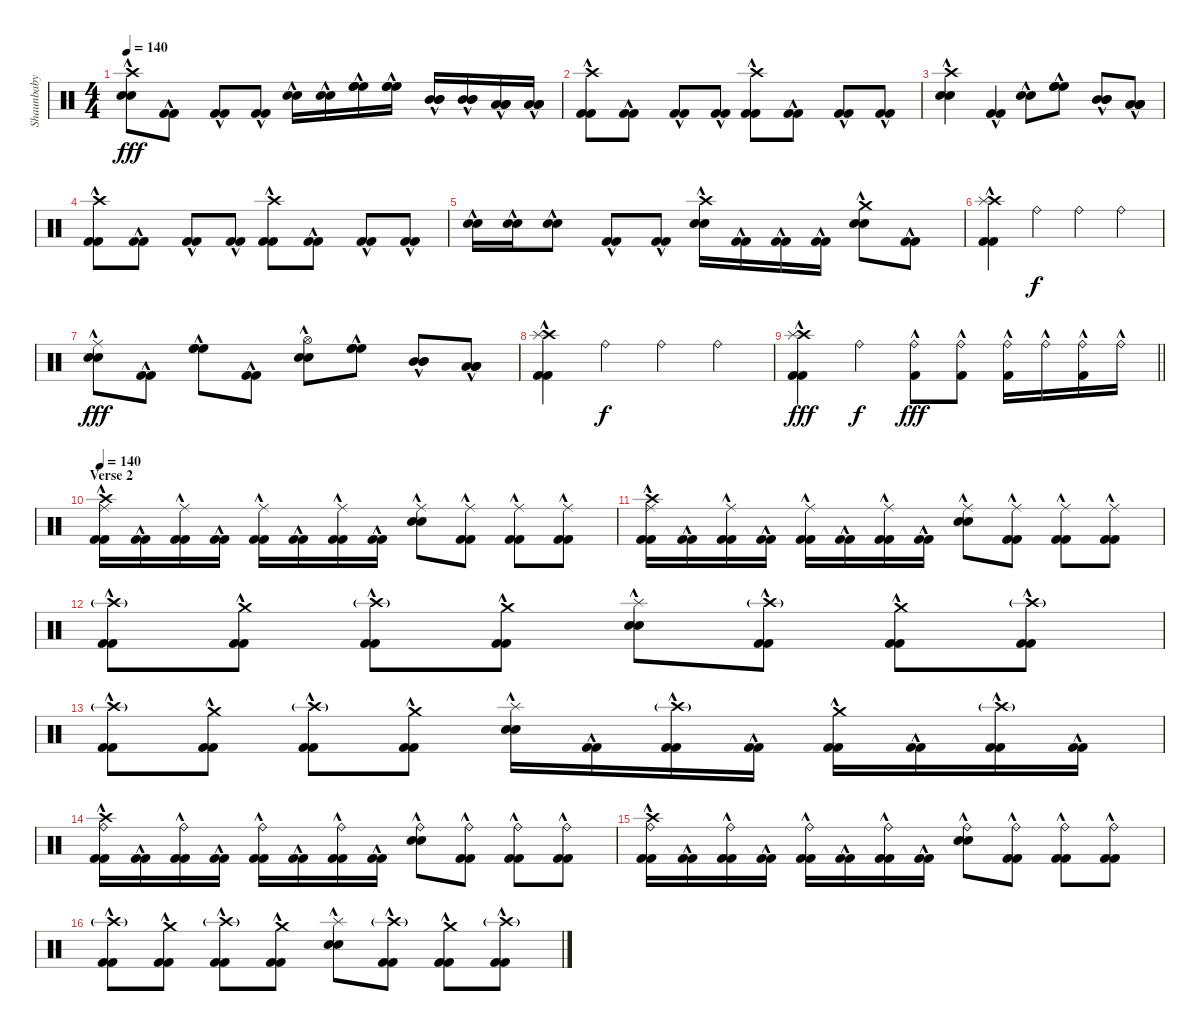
\track ("Shaunbaby" "Shaunbaby") {instrument percussion}
\staff {score}
\articulation defaults
\ts (4 4)
\tempo 140
\clef neutral
\ks c
("Crash high (hit)" "Electric Snare (hit)"{hac} "Electric Snare (hit)"{hac}).8{dy fff} ("Kick (hit) 2"{hac} "Kick (hit) 2"{hac}).8 ("Kick (hit) 2"{hac} "Kick (hit) 2"{hac}).8 ("Kick (hit) 2"{hac} "Kick (hit) 2"{hac}).8 ("Electric Snare (hit)"{hac} "Electric Snare (hit)"{hac}).16 ("Electric Snare (hit)"{hac} "Electric Snare (hit)"{hac}).16 ("High Floor Tom (hit)"{hac} "High Floor Tom (hit)"{hac} "High Floor Tom (hit)"{hac}).16 ("High Floor Tom (hit)"{hac} "High Floor Tom (hit)"{hac} "High Floor Tom (hit)"{hac}).16 ("Mid Tom (hit)"{hac} "Mid Tom (hit)"{hac} "Mid Tom (hit)"{hac}).16 ("Mid Tom (hit)"{hac} "Mid Tom (hit)"{hac} "Mid Tom (hit)"{hac}).16 ("Low Floor Tom (hit)"{hac} "Low Floor Tom (hit)"{hac} "Low Floor Tom (hit)"{hac}).16 ("Low Floor Tom (hit)"{hac} "Low Floor Tom (hit)"{hac} "Low Floor Tom (hit)"{hac}).16 |
("Crash high (hit)" "Kick (hit) 2"{hac} "Kick (hit) 2"{hac}).8 ("Kick (hit) 2"{hac} "Kick (hit) 2"{hac}).8 ("Kick (hit) 2"{hac} "Kick (hit) 2"{hac}).8 ("Kick (hit) 2"{hac} "Kick (hit) 2"{hac}).8 ("Crash high (hit)" "Kick (hit) 2"{hac} "Kick (hit) 2"{hac}).8 ("Kick (hit) 2"{hac} "Kick (hit) 2"{hac}).8 ("Kick (hit) 2"{hac} "Kick (hit) 2"{hac}).8 ("Kick (hit) 2"{hac} "Kick (hit) 2"{hac}).8 |
("Crash high (hit)" "Electric Snare (hit)"{hac} "Electric Snare (hit)"{hac}).4 ("Kick (hit) 2"{hac} "Kick (hit) 2"{hac}).4 ("Electric Snare (hit)"{hac} "Electric Snare (hit)"{hac}).8 ("High Floor Tom (hit)"{hac} "High Floor Tom (hit)"{hac} "High Floor Tom (hit)"{hac}).8 ("Mid Tom (hit)"{hac} "Mid Tom (hit)"{hac} "Mid Tom (hit)"{hac}).8 ("Low Floor Tom (hit)"{hac} "Low Floor Tom (hit)"{hac} "Low Floor Tom (hit)"{hac}).8 |
("Crash high (hit)" "Kick (hit) 2"{hac} "Kick (hit) 2"{hac}).8 ("Kick (hit) 2"{hac} "Kick (hit) 2"{hac}).8 ("Kick (hit) 2"{hac} "Kick (hit) 2"{hac}).8 ("Kick (hit) 2"{hac} "Kick (hit) 2"{hac}).8 ("Crash high (hit)" "Kick (hit) 2"{hac} "Kick (hit) 2"{hac}).8 ("Kick (hit) 2"{hac} "Kick (hit) 2"{hac}).8 ("Kick (hit) 2"{hac} "Kick (hit) 2"{hac}).8 ("Kick (hit) 2"{hac} "Kick (hit) 2"{hac}).8 |
("Electric Snare (hit)"{hac} "Electric Snare (hit)"{hac}).16 ("Electric Snare (hit)"{hac} "Electric Snare (hit)"{hac}).16 ("Electric Snare (hit)"{hac} "Electric Snare (hit)"{hac}).8 ("Kick (hit) 2"{hac} "Kick (hit) 2"{hac}).8 ("Kick (hit) 2"{hac} "Kick (hit) 2"{hac}).8 ("Crash high (hit)" "Electric Snare (hit)"{hac} "Electric Snare (hit)"{hac}).16 ("Kick (hit) 2"{hac} "Kick (hit) 2"{hac}).16 ("Kick (hit) 2"{hac} "Kick (hit) 2"{hac}).16 ("Kick (hit) 2"{hac} "Kick (hit) 2"{hac}).16 ("Crash medium (hit)" "Electric Snare (hit)"{hac} "Electric Snare (hit)"{hac}).8 ("Kick (hit) 2"{hac} "Kick (hit) 2"{hac}).8 |
("Crash high (hit)" "Splash (hit)" "Kick (hit) 2"{hac} "Kick (hit) 2"{hac}).4 "Ride (bell)".4{dy f} "Ride (bell)".4 "Ride (bell)".4 |
("Ride (middle)" "Electric Snare (hit)"{hac} "Electric Snare (hit)"{hac}).8{dy fff} ("Kick (hit) 2"{hac} "Kick (hit) 2"{hac}).8 ("High Floor Tom (hit)"{hac} "High Floor Tom (hit)"{hac} "High Floor Tom (hit)"{hac}).8 ("Kick (hit) 2"{hac} "Kick (hit) 2"{hac}).8 ("Hi-Hat (open)" "Electric Snare (hit)"{hac} "Electric Snare (hit)"{hac}).8 ("High Floor Tom (hit)"{hac} "High Floor Tom (hit)"{hac} "High Floor Tom (hit)"{hac}).8 ("Mid Tom (hit)"{hac} "Mid Tom (hit)"{hac} "Mid Tom (hit)"{hac}).8 ("Low Floor Tom (hit)"{hac} "Low Floor Tom (hit)"{hac} "Low Floor Tom (hit)"{hac}).8 |
("Crash high (hit)" "Splash (hit)" "Kick (hit) 2"{hac} "Kick (hit) 2"{hac}).4 "Ride (bell)".4{dy f} "Ride (bell)".4 "Ride (bell)".4 |
\barLineRight lightlight
("Crash high (hit)" "Splash (hit)" "Kick (hit) 2"{hac} "Kick (hit) 2"{hac}).4{dy fff} "Ride (bell)".4{dy f} ("Ride (bell)"{hac} "Kick (hit) 2").8{dy fff} ("Ride (bell)"{hac} "Kick (hit) 2").8 ("Ride (bell)"{hac} "Kick (hit) 2").16 "Ride (bell)"{hac}.16 ("Ride (bell)"{hac} "Kick (hit) 2"{hac}).16 "Ride (bell)"{hac}.16 |
\section ("" "Verse 2")
\tempo 140
("Crash high (hit)" "Ride (middle)" "Kick (hit) 2"{hac} "Kick (hit) 2"{hac}).16 ("Kick (hit) 2"{hac} "Kick (hit) 2"{hac}).16 ("Ride (middle)" "Kick (hit) 2"{hac} "Kick (hit) 2"{hac}).16 ("Kick (hit) 2"{hac} "Kick (hit) 2"{hac}).16 ("Ride (middle)" "Kick (hit) 2"{hac} "Kick (hit) 2"{hac}).16 ("Kick (hit) 2"{hac} "Kick (hit) 2"{hac}).16 ("Ride (middle)" "Kick (hit) 2"{hac} "Kick (hit) 2"{hac}).16 ("Kick (hit) 2"{hac} "Kick (hit) 2"{hac}).16 ("Ride (middle)" "Electric Snare (hit)"{hac} "Electric Snare (hit)"{hac}).8 ("Ride (middle)" "Kick (hit) 2"{hac} "Kick (hit) 2"{hac}).8 ("Ride (middle)" "Kick (hit) 2"{hac} "Kick (hit) 2"{hac}).8 ("Ride (middle)" "Kick (hit) 2"{hac} "Kick (hit) 2"{hac}).8 |
("Crash high (hit)" "Ride (middle)" "Kick (hit) 2"{hac} "Kick (hit) 2"{hac}).16 ("Kick (hit) 2"{hac} "Kick (hit) 2"{hac}).16 ("Ride (middle)" "Kick (hit) 2"{hac} "Kick (hit) 2"{hac}).16 ("Kick (hit) 2"{hac} "Kick (hit) 2"{hac}).16 ("Ride (middle)" "Kick (hit) 2"{hac} "Kick (hit) 2"{hac}).16 ("Kick (hit) 2"{hac} "Kick (hit) 2"{hac}).16 ("Ride (middle)" "Kick (hit) 2"{hac} "Kick (hit) 2"{hac}).16 ("Kick (hit) 2"{hac} "Kick (hit) 2"{hac}).16 ("Ride (middle)" "Electric Snare (hit)"{hac} "Electric Snare (hit)"{hac}).8 ("Ride (middle)" "Kick (hit) 2"{hac} "Kick (hit) 2"{hac}).8 ("Ride (middle)" "Kick (hit) 2"{hac} "Kick (hit) 2"{hac}).8 ("Ride (middle)" "Kick (hit) 2"{hac} "Kick (hit) 2"{hac}).8 |
("Crash high (hit)"{g} "Kick (hit) 2"{hac} "Kick (hit) 2"{hac}).8 ("Crash medium (hit)" "Kick (hit) 2"{hac} "Kick (hit) 2"{hac}).8 ("Crash high (hit)"{g} "Kick (hit) 2"{hac} "Kick (hit) 2"{hac}).8 ("Crash medium (hit)" "Kick (hit) 2"{hac} "Kick (hit) 2"{hac}).8 ("Splash (hit)" "Electric Snare (hit)"{hac} "Electric Snare (hit)"{hac}).8 ("Crash high (hit)"{g} "Kick (hit) 2"{hac} "Kick (hit) 2"{hac}).8 ("Crash medium (hit)" "Kick (hit) 2"{hac} "Kick (hit) 2"{hac}).8 ("Crash high (hit)"{g} "Kick (hit) 2"{hac} "Kick (hit) 2"{hac}).8 |
("Crash high (hit)"{g} "Kick (hit) 2"{hac} "Kick (hit) 2"{hac}).8 ("Crash medium (hit)" "Kick (hit) 2"{hac} "Kick (hit) 2"{hac}).8 ("Crash high (hit)"{g} "Kick (hit) 2"{hac} "Kick (hit) 2"{hac}).8 ("Crash medium (hit)" "Kick (hit) 2"{hac} "Kick (hit) 2"{hac}).8 ("Splash (hit)" "Electric Snare (hit)"{hac} "Electric Snare (hit)"{hac}).16 ("Kick (hit) 2"{hac} "Kick (hit) 2"{hac}).16 ("Crash high (hit)"{g} "Kick (hit) 2"{hac} "Kick (hit) 2"{hac}).16 ("Kick (hit) 2"{hac} "Kick (hit) 2"{hac}).16 ("Crash medium (hit)" "Kick (hit) 2"{hac} "Kick (hit) 2"{hac}).16 ("Kick (hit) 2"{hac} "Kick (hit) 2"{hac}).16 ("Crash high (hit)"{g} "Kick (hit) 2"{hac} "Kick (hit) 2"{hac}).16 ("Kick (hit) 2"{hac} "Kick (hit) 2"{hac}).16 |
("Crash high (hit)" "Ride (bell)" "Kick (hit) 2"{hac} "Kick (hit) 2"{hac}).16 ("Kick (hit) 2"{hac} "Kick (hit) 2"{hac}).16 ("Ride (bell)" "Kick (hit) 2"{hac} "Kick (hit) 2"{hac}).16 ("Kick (hit) 2"{hac} "Kick (hit) 2"{hac}).16 ("Ride (bell)" "Kick (hit) 2"{hac} "Kick (hit) 2"{hac}).16 ("Kick (hit) 2"{hac} "Kick (hit) 2"{hac}).16 ("Ride (bell)" "Kick (hit) 2"{hac} "Kick (hit) 2"{hac}).16 ("Kick (hit) 2"{hac} "Kick (hit) 2"{hac}).16 ("Ride (bell)" "Electric Snare (hit)"{hac} "Electric Snare (hit)"{hac}).8 ("Ride (bell)" "Kick (hit) 2"{hac} "Kick (hit) 2"{hac}).8 ("Ride (bell)" "Kick (hit) 2"{hac} "Kick (hit) 2"{hac}).8 ("Ride (bell)" "Kick (hit) 2"{hac} "Kick (hit) 2"{hac}).8 |
("Crash high (hit)" "Ride (bell)" "Kick (hit) 2"{hac} "Kick (hit) 2"{hac}).16 ("Kick (hit) 2"{hac} "Kick (hit) 2"{hac}).16 ("Ride (bell)" "Kick (hit) 2"{hac} "Kick (hit) 2"{hac}).16 ("Kick (hit) 2"{hac} "Kick (hit) 2"{hac}).16 ("Ride (bell)" "Kick (hit) 2"{hac} "Kick (hit) 2"{hac}).16 ("Kick (hit) 2"{hac} "Kick (hit) 2"{hac}).16 ("Ride (bell)" "Kick (hit) 2"{hac} "Kick (hit) 2"{hac}).16 ("Kick (hit) 2"{hac} "Kick (hit) 2"{hac}).16 ("Ride (bell)" "Electric Snare (hit)"{hac} "Electric Snare (hit)"{hac}).8 ("Ride (bell)" "Kick (hit) 2"{hac} "Kick (hit) 2"{hac}).8 ("Ride (bell)" "Kick (hit) 2"{hac} "Kick (hit) 2"{hac}).8 ("Ride (bell)" "Kick (hit) 2"{hac} "Kick (hit) 2"{hac}).8 |
("Crash high (hit)"{g} "Kick (hit) 2"{hac} "Kick (hit) 2"{hac}).8 ("Crash medium (hit)" "Kick (hit) 2"{hac} "Kick (hit) 2"{hac}).8 ("Crash high (hit)"{g} "Kick (hit) 2"{hac} "Kick (hit) 2"{hac}).8 ("Crash medium (hit)" "Kick (hit) 2"{hac} "Kick (hit) 2"{hac}).8 ("Splash (hit)" "Electric Snare (hit)"{hac} "Electric Snare (hit)"{hac}).8 ("Crash high (hit)"{g} "Kick (hit) 2"{hac} "Kick (hit) 2"{hac}).8 ("Crash medium (hit)" "Kick (hit) 2"{hac} "Kick (hit) 2"{hac}).8 ("Crash high (hit)"{g} "Kick (hit) 2"{hac} "Kick (hit) 2"{hac}).8
